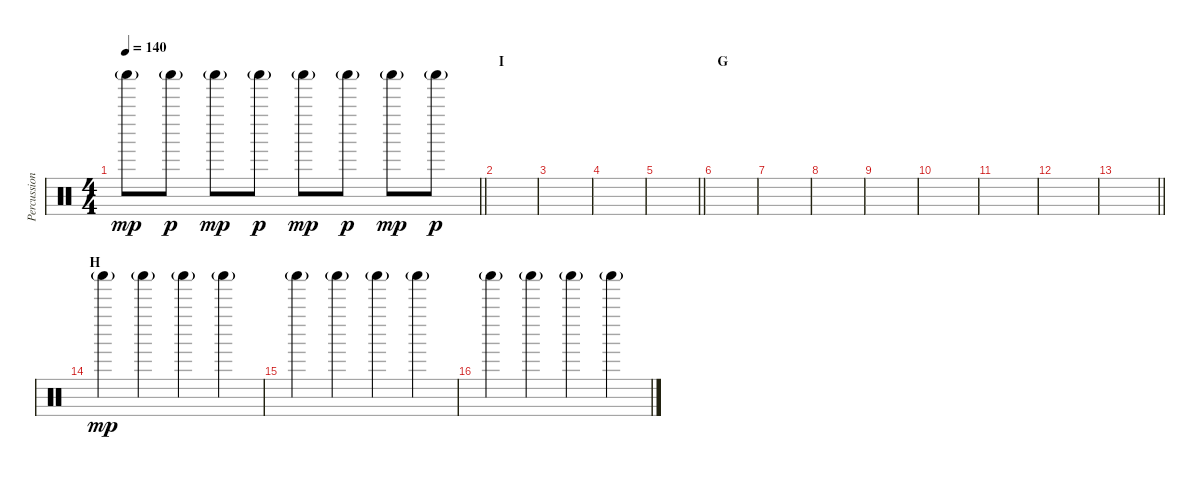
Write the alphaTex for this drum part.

\track ("Percussion" "Percussion") {instrument percussion}
\staff {score}
\articulation defaults
\ts (4 4)
\tempo 140
\clef neutral
\barLineRight lightlight
\ks c "Shaker (hit)"{g}.8{dy mp} "Shaker (hit)"{g}.8{dy p} "Shaker (hit)"{g}.8{dy mp} "Shaker (hit)"{g}.8{dy p} "Shaker (hit)"{g}.8{dy mp} "Shaker (hit)"{g}.8{dy p} "Shaker (hit)"{g}.8{dy mp} "Shaker (hit)"{g}.8{dy p}
|
\section ("" "I")
|
|
|
\barLineRight lightlight
|
\section ("" "G")
|
|
|
|
|
|
|
\barLineRight lightlight
|
\section ("" "H")
"Shaker (hit)"{g}.4{dy mp} "Shaker (hit)"{g}.4 "Shaker (hit)"{g}.4 "Shaker (hit)"{g}.4 |
"Shaker (hit)"{g}.4 "Shaker (hit)"{g}.4 "Shaker (hit)"{g}.4 "Shaker (hit)"{g}.4 |
"Shaker (hit)"{g}.4 "Shaker (hit)"{g}.4 "Shaker (hit)"{g}.4 "Shaker (hit)"{g}.4
